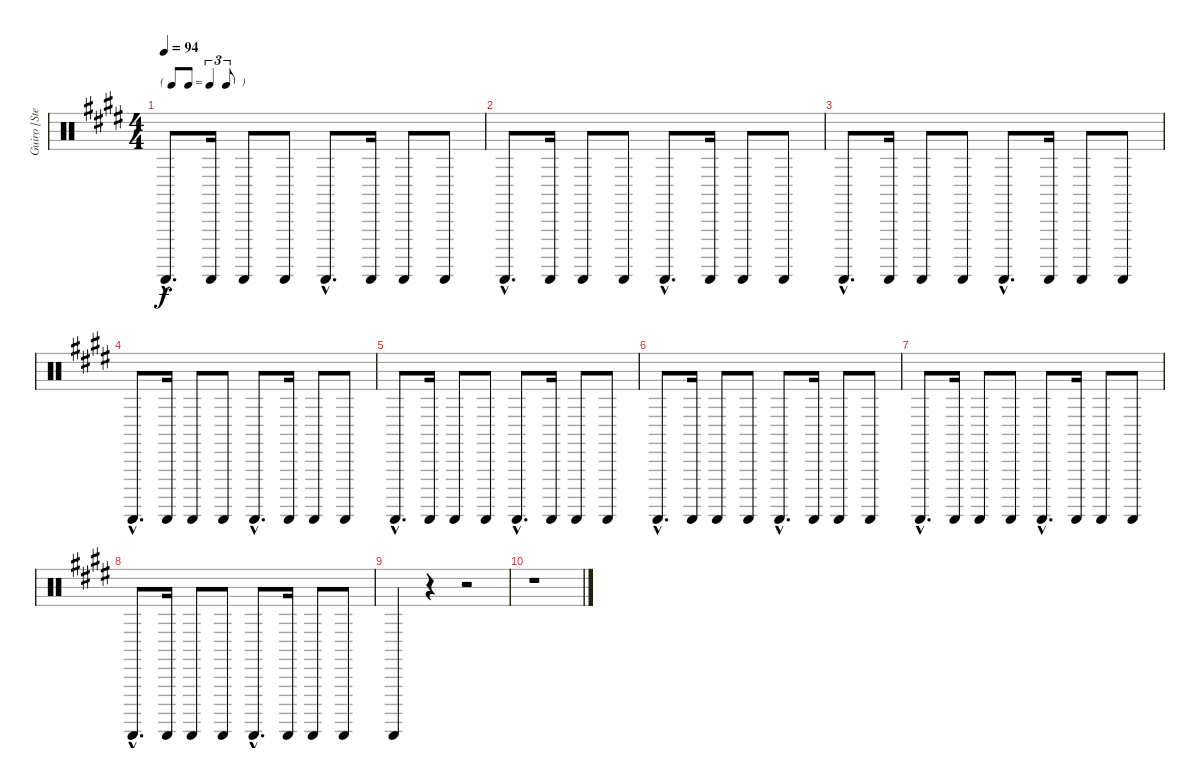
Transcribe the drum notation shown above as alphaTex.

\track ("Guiro [Steve Gadd]" "Guiro [Ste") {instrument percussion}
\staff {score}
\articulation defaults
\ts (4 4)
\tf triplet8th
\tempo 94
\clef neutral
\ks e "Guiro (scrap-return)"{hac}.8{d dy f} "Guiro (scrap-return)".16 "Guiro (scrap-return)".8 "Guiro (scrap-return)".8 "Guiro (scrap-return)"{hac}.8{d} "Guiro (scrap-return)".16 "Guiro (scrap-return)".8 "Guiro (scrap-return)".8
|
"Guiro (scrap-return)"{hac}.8{d} "Guiro (scrap-return)".16 "Guiro (scrap-return)".8 "Guiro (scrap-return)".8 "Guiro (scrap-return)"{hac}.8{d} "Guiro (scrap-return)".16 "Guiro (scrap-return)".8 "Guiro (scrap-return)".8 |
"Guiro (scrap-return)"{hac}.8{d} "Guiro (scrap-return)".16 "Guiro (scrap-return)".8 "Guiro (scrap-return)".8 "Guiro (scrap-return)"{hac}.8{d} "Guiro (scrap-return)".16 "Guiro (scrap-return)".8 "Guiro (scrap-return)".8 |
"Guiro (scrap-return)"{hac}.8{d} "Guiro (scrap-return)".16 "Guiro (scrap-return)".8 "Guiro (scrap-return)".8 "Guiro (scrap-return)"{hac}.8{d} "Guiro (scrap-return)".16 "Guiro (scrap-return)".8 "Guiro (scrap-return)".8 |
"Guiro (scrap-return)"{hac}.8{d} "Guiro (scrap-return)".16 "Guiro (scrap-return)".8 "Guiro (scrap-return)".8 "Guiro (scrap-return)"{hac}.8{d} "Guiro (scrap-return)".16 "Guiro (scrap-return)".8 "Guiro (scrap-return)".8 |
"Guiro (scrap-return)"{hac}.8{d} "Guiro (scrap-return)".16 "Guiro (scrap-return)".8 "Guiro (scrap-return)".8 "Guiro (scrap-return)"{hac}.8{d} "Guiro (scrap-return)".16 "Guiro (scrap-return)".8 "Guiro (scrap-return)".8 |
"Guiro (scrap-return)"{hac}.8{d} "Guiro (scrap-return)".16 "Guiro (scrap-return)".8 "Guiro (scrap-return)".8 "Guiro (scrap-return)"{hac}.8{d} "Guiro (scrap-return)".16 "Guiro (scrap-return)".8 "Guiro (scrap-return)".8 |
"Guiro (scrap-return)"{hac}.8{d} "Guiro (scrap-return)".16 "Guiro (scrap-return)".8 "Guiro (scrap-return)".8 "Guiro (scrap-return)"{hac}.8{d} "Guiro (scrap-return)".16 "Guiro (scrap-return)".8 "Guiro (scrap-return)".8 |
"Guiro (scrap-return)".4 r.4 r.2 |
r.1
